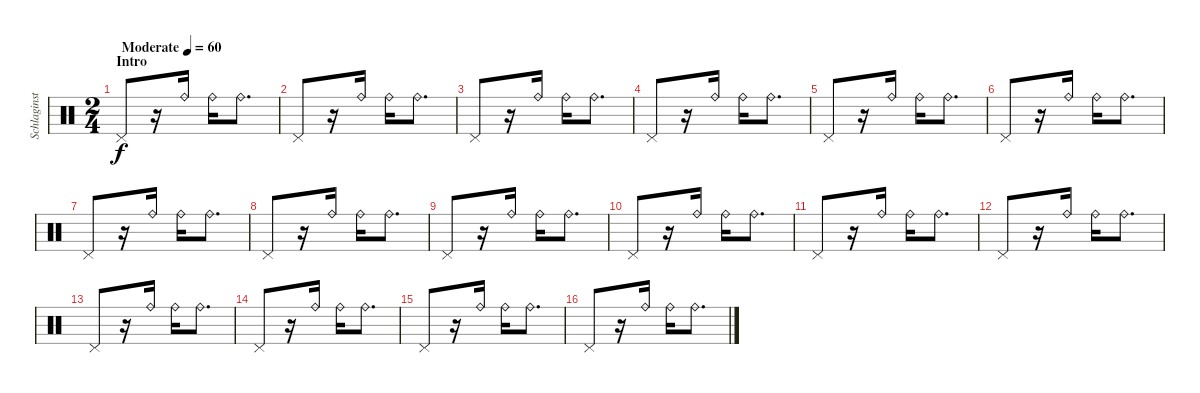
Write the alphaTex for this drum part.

\track ("Schlaginstrumente - Auswahl" "Schlaginst") {instrument percussion}
\staff {score}
\articulation defaults
\ts (2 4)
\section ("" "Intro")
\tempo (60 "Moderate")
\clef neutral
\ks c "Pedal Hi-Hat (hit)".8{dy f}
r.16 "Ride (bell)".16 "Ride (bell)".16 "Ride (bell)".8{d} |
"Pedal Hi-Hat (hit)".8 r.16 "Ride (bell)".16 "Ride (bell)".16 "Ride (bell)".8{d} |
"Pedal Hi-Hat (hit)".8 r.16 "Ride (bell)".16 "Ride (bell)".16 "Ride (bell)".8{d} |
"Pedal Hi-Hat (hit)".8 r.16 "Ride (bell)".16 "Ride (bell)".16 "Ride (bell)".8{d} |
"Pedal Hi-Hat (hit)".8 r.16 "Ride (bell)".16 "Ride (bell)".16 "Ride (bell)".8{d} |
"Pedal Hi-Hat (hit)".8 r.16 "Ride (bell)".16 "Ride (bell)".16 "Ride (bell)".8{d} |
"Pedal Hi-Hat (hit)".8 r.16 "Ride (bell)".16 "Ride (bell)".16 "Ride (bell)".8{d} |
"Pedal Hi-Hat (hit)".8 r.16 "Ride (bell)".16 "Ride (bell)".16 "Ride (bell)".8{d} |
"Pedal Hi-Hat (hit)".8 r.16 "Ride (bell)".16 "Ride (bell)".16 "Ride (bell)".8{d} |
"Pedal Hi-Hat (hit)".8 r.16 "Ride (bell)".16 "Ride (bell)".16 "Ride (bell)".8{d} |
"Pedal Hi-Hat (hit)".8 r.16 "Ride (bell)".16 "Ride (bell)".16 "Ride (bell)".8{d} |
"Pedal Hi-Hat (hit)".8 r.16 "Ride (bell)".16 "Ride (bell)".16 "Ride (bell)".8{d} |
"Pedal Hi-Hat (hit)".8 r.16 "Ride (bell)".16 "Ride (bell)".16 "Ride (bell)".8{d} |
"Pedal Hi-Hat (hit)".8 r.16 "Ride (bell)".16 "Ride (bell)".16 "Ride (bell)".8{d} |
"Pedal Hi-Hat (hit)".8 r.16 "Ride (bell)".16 "Ride (bell)".16 "Ride (bell)".8{d} |
"Pedal Hi-Hat (hit)".8 r.16 "Ride (bell)".16 "Ride (bell)".16 "Ride (bell)".8{d}
